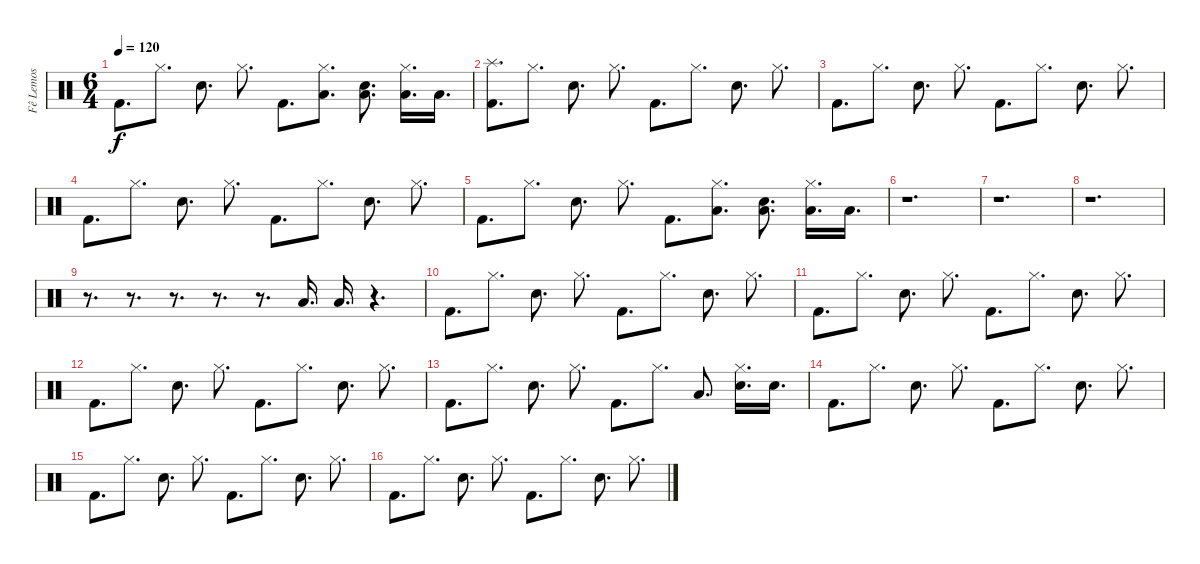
\track ("Fê Lemos" "Fê Lemos") {instrument percussion}
\staff {score}
\articulation defaults
\ts (6 4)
\tempo 120
\clef neutral
\ks c "Kick (hit) 2".8{d dy f} "Hi-Hat (closed)".8{d} "Electric Snare (hit)".8{d} "Hi-Hat (closed)".8{d} "Kick (hit) 2".8{d}
("Low Tom (hit)" "Hi-Hat (closed)").8{d} ("Low Tom (hit)" "Electric Snare (hit)").8{d} ("Low Tom (hit)" "Hi-Hat (closed)").16{d} "Low Tom (hit)".16{d} |
("Splash (hit)" "Kick (hit) 2").8{d} "Hi-Hat (closed)".8{d} "Electric Snare (hit)".8{d} "Hi-Hat (closed)".8{d} "Kick (hit) 2".8{d} "Hi-Hat (closed)".8{d} "Electric Snare (hit)".8{d} "Hi-Hat (closed)".8{d} |
"Kick (hit) 2".8{d} "Hi-Hat (closed)".8{d} "Electric Snare (hit)".8{d} "Hi-Hat (closed)".8{d} "Kick (hit) 2".8{d} "Hi-Hat (closed)".8{d} "Electric Snare (hit)".8{d} "Hi-Hat (closed)".8{d} |
"Kick (hit) 2".8{d} "Hi-Hat (closed)".8{d} "Electric Snare (hit)".8{d} "Hi-Hat (closed)".8{d} "Kick (hit) 2".8{d} "Hi-Hat (closed)".8{d} "Electric Snare (hit)".8{d} "Hi-Hat (closed)".8{d} |
"Kick (hit) 2".8{d} "Hi-Hat (closed)".8{d} "Electric Snare (hit)".8{d} "Hi-Hat (closed)".8{d} "Kick (hit) 2".8{d} ("Low Tom (hit)" "Hi-Hat (closed)").8{d} ("Low Tom (hit)" "Electric Snare (hit)").8{d} ("Low Tom (hit)" "Hi-Hat (closed)").16{d} "Low Tom (hit)".16{d} |
r.1{d} |
r.1{d} |
r.1{d} |
r.8{d} r.8{d} r.8{d} r.8{d} r.8{d} "Low Tom (hit)".16{d} "Low Tom (hit)".16{d} r.4{d} |
"Kick (hit) 2".8{d} "Hi-Hat (closed)".8{d} "Electric Snare (hit)".8{d} "Hi-Hat (closed)".8{d} "Kick (hit) 2".8{d} "Hi-Hat (closed)".8{d} "Electric Snare (hit)".8{d} "Hi-Hat (closed)".8{d} |
"Kick (hit) 2".8{d} "Hi-Hat (closed)".8{d} "Electric Snare (hit)".8{d} "Hi-Hat (closed)".8{d} "Kick (hit) 2".8{d} "Hi-Hat (closed)".8{d} "Electric Snare (hit)".8{d} "Hi-Hat (closed)".8{d} |
"Kick (hit) 2".8{d} "Hi-Hat (closed)".8{d} "Electric Snare (hit)".8{d} "Hi-Hat (closed)".8{d} "Kick (hit) 2".8{d} "Hi-Hat (closed)".8{d} "Electric Snare (hit)".8{d} "Hi-Hat (closed)".8{d} |
"Kick (hit) 2".8{d} "Hi-Hat (closed)".8{d} "Electric Snare (hit)".8{d} "Hi-Hat (closed)".8{d} "Kick (hit) 2".8{d} "Hi-Hat (closed)".8{d} "Low Tom (hit)".8{d} ("Electric Snare (hit)" "Hi-Hat (closed)").16{d} "Electric Snare (hit)".16{d} |
"Kick (hit) 2".8{d} "Hi-Hat (closed)".8{d} "Electric Snare (hit)".8{d} "Hi-Hat (closed)".8{d} "Kick (hit) 2".8{d} "Hi-Hat (closed)".8{d} "Electric Snare (hit)".8{d} "Hi-Hat (closed)".8{d} |
"Kick (hit) 2".8{d} "Hi-Hat (closed)".8{d} "Electric Snare (hit)".8{d} "Hi-Hat (closed)".8{d} "Kick (hit) 2".8{d} "Hi-Hat (closed)".8{d} "Electric Snare (hit)".8{d} "Hi-Hat (closed)".8{d} |
"Kick (hit) 2".8{d} "Hi-Hat (closed)".8{d} "Electric Snare (hit)".8{d} "Hi-Hat (closed)".8{d} "Kick (hit) 2".8{d} "Hi-Hat (closed)".8{d} "Electric Snare (hit)".8{d} "Hi-Hat (closed)".8{d}
